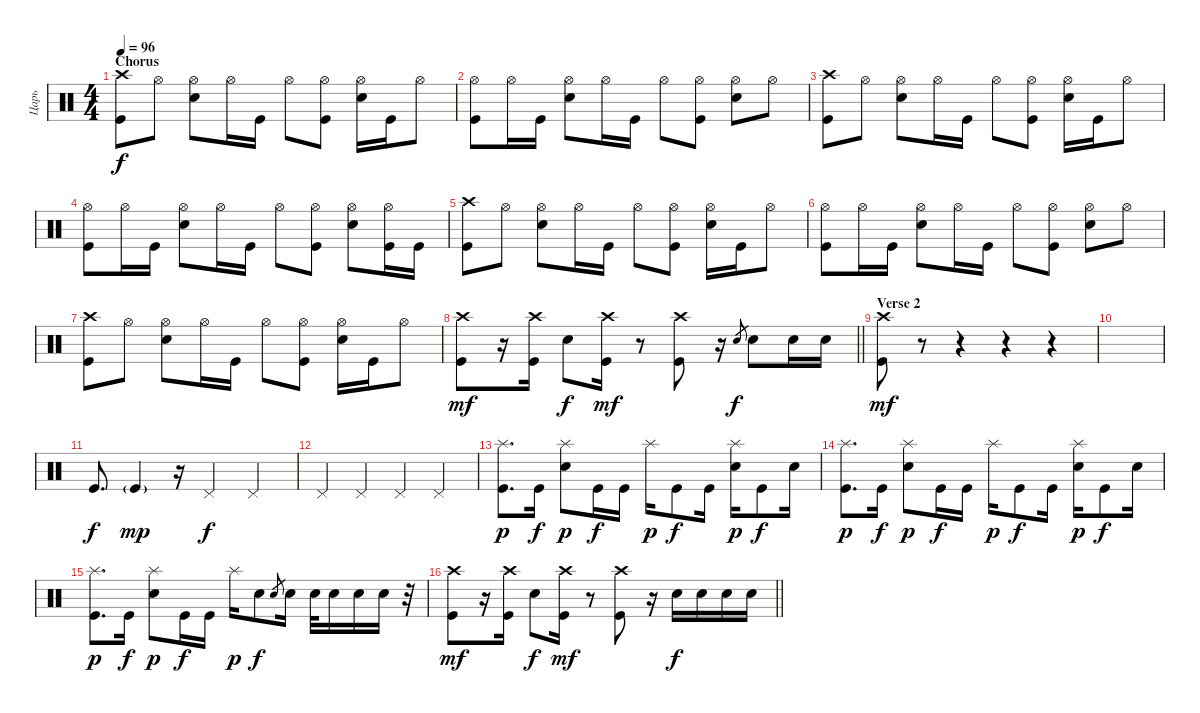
\track ("Царь" "Царь") {instrument percussion}
\staff {score}
\articulation defaults
\ts (4 4)
\section ("" "Chorus")
\tempo 96
\clef neutral
\ks c
("Crash high (hit)" "Kick (hit)").8{dy f} "Hi-Hat (open)".8 ("Electric Snare (hit)" "Hi-Hat (open)").8 "Hi-Hat (open)".16 "Kick (hit)".16 "Hi-Hat (open)".8 ("Kick (hit)" "Hi-Hat (open)").8 ("Electric Snare (hit)" "Hi-Hat (open)").16 "Kick (hit)".16 "Hi-Hat (open)".8 |
("Kick (hit)" "Hi-Hat (open)").8 "Hi-Hat (open)".16 "Kick (hit)".16 ("Electric Snare (hit)" "Hi-Hat (open)").8 "Hi-Hat (open)".16 "Kick (hit)".16 "Hi-Hat (open)".8 ("Kick (hit)" "Hi-Hat (open)").8 ("Electric Snare (hit)" "Hi-Hat (open)").8 "Hi-Hat (open)".8 |
("Crash high (hit)" "Kick (hit)").8 "Hi-Hat (open)".8 ("Electric Snare (hit)" "Hi-Hat (open)").8 "Hi-Hat (open)".16 "Kick (hit)".16 "Hi-Hat (open)".8 ("Kick (hit)" "Hi-Hat (open)").8 ("Electric Snare (hit)" "Hi-Hat (open)").16 "Kick (hit)".16 "Hi-Hat (open)".8 |
("Kick (hit)" "Hi-Hat (open)").8 "Hi-Hat (open)".16 "Kick (hit)".16 ("Electric Snare (hit)" "Hi-Hat (open)").8 "Hi-Hat (open)".16 "Kick (hit)".16 "Hi-Hat (open)".8 ("Kick (hit)" "Hi-Hat (open)").8 ("Electric Snare (hit)" "Hi-Hat (open)").8 ("Kick (hit)" "Hi-Hat (open)").16 "Kick (hit)".16 |
("Crash high (hit)" "Kick (hit)").8 "Hi-Hat (open)".8 ("Electric Snare (hit)" "Hi-Hat (open)").8 "Hi-Hat (open)".16 "Kick (hit)".16 "Hi-Hat (open)".8 ("Kick (hit)" "Hi-Hat (open)").8 ("Electric Snare (hit)" "Hi-Hat (open)").16 "Kick (hit)".16 "Hi-Hat (open)".8 |
("Kick (hit)" "Hi-Hat (open)").8 "Hi-Hat (open)".16 "Kick (hit)".16 ("Electric Snare (hit)" "Hi-Hat (open)").8 "Hi-Hat (open)".16 "Kick (hit)".16 "Hi-Hat (open)".8 ("Kick (hit)" "Hi-Hat (open)").8 ("Electric Snare (hit)" "Hi-Hat (open)").8 "Hi-Hat (open)".8 |
("Crash high (hit)" "Kick (hit)").8 "Hi-Hat (open)".8 ("Electric Snare (hit)" "Hi-Hat (open)").8 "Hi-Hat (open)".16 "Kick (hit)".16 "Hi-Hat (open)".8 ("Kick (hit)" "Hi-Hat (open)").8 ("Electric Snare (hit)" "Hi-Hat (open)").16 "Kick (hit)".16 "Hi-Hat (open)".8 |
\barLineRight lightlight
("Kick (hit)" "Crash high (hit)").8{dy mf} r.16 ("Kick (hit)" "Crash high (hit)").16 "Electric Snare (hit)".8{dy f} ("Kick (hit)" "Crash high (hit)").16{dy mf} r.8 ("Kick (hit)" "Crash high (hit)").8 r.16 "Electric Snare (hit)".8{gr dy f} "Electric Snare (hit)".8 "Electric Snare (hit)".16 "Electric Snare (hit)".16 |
\section ("" "Verse 2")
("Kick (hit)" "Crash high (hit)").8{dy mf} r.8 r.4 r.4 r.4 |
|
"Kick (hit)".8{d dy f} "Kick (hit)"{g}.4{dy mp} r.16 "Pedal Hi-Hat (hit)".4{dy f} "Pedal Hi-Hat (hit)".4 |
"Pedal Hi-Hat (hit)".4 "Pedal Hi-Hat (hit)".4 "Pedal Hi-Hat (hit)".4 "Pedal Hi-Hat (hit)".4 |
("Kick (hit)" "Splash (hit)").8{d dy p} "Kick (hit)".16{dy f} ("Electric Snare (hit)" "Splash (hit)").8{dy p} "Kick (hit)".16{dy f} "Kick (hit)".16 "Splash (hit)".16{dy p} "Kick (hit)".8{dy f} "Kick (hit)".16 ("Electric Snare (hit)" "Splash (hit)").16{dy p} "Kick (hit)".8{dy f} "Electric Snare (hit)".16 |
("Kick (hit)" "Splash (hit)").8{d dy p} "Kick (hit)".16{dy f} ("Electric Snare (hit)" "Splash (hit)").8{dy p} "Kick (hit)".16{dy f} "Kick (hit)".16 "Splash (hit)".16{dy p} "Kick (hit)".8{dy f} "Kick (hit)".16 ("Electric Snare (hit)" "Splash (hit)").16{dy p} "Kick (hit)".8{dy f} "Electric Snare (hit)".16 |
("Kick (hit)" "Splash (hit)").8{d dy p} "Kick (hit)".16{dy f} ("Electric Snare (hit)" "Splash (hit)").8{dy p} "Kick (hit)".16{dy f} "Kick (hit)".16 "Splash (hit)".16{dy p} "Electric Snare (hit)".8{dy f} "Electric Snare (hit)".8{gr} "Electric Snare (hit)".16 "Electric Snare (hit)".32 "Electric Snare (hit)".16 "Electric Snare (hit)".16 "Electric Snare (hit)".16 r.32 |
\barLineRight lightlight
("Kick (hit)" "Crash high (hit)").8{dy mf} r.16 ("Kick (hit)" "Crash high (hit)").16 "Electric Snare (hit)".8{dy f} ("Kick (hit)" "Crash high (hit)").16{dy mf} r.8 ("Kick (hit)" "Crash high (hit)").8 r.16 "Electric Snare (hit)".16{dy f} "Electric Snare (hit)".16 "Electric Snare (hit)".16 "Electric Snare (hit)".16
